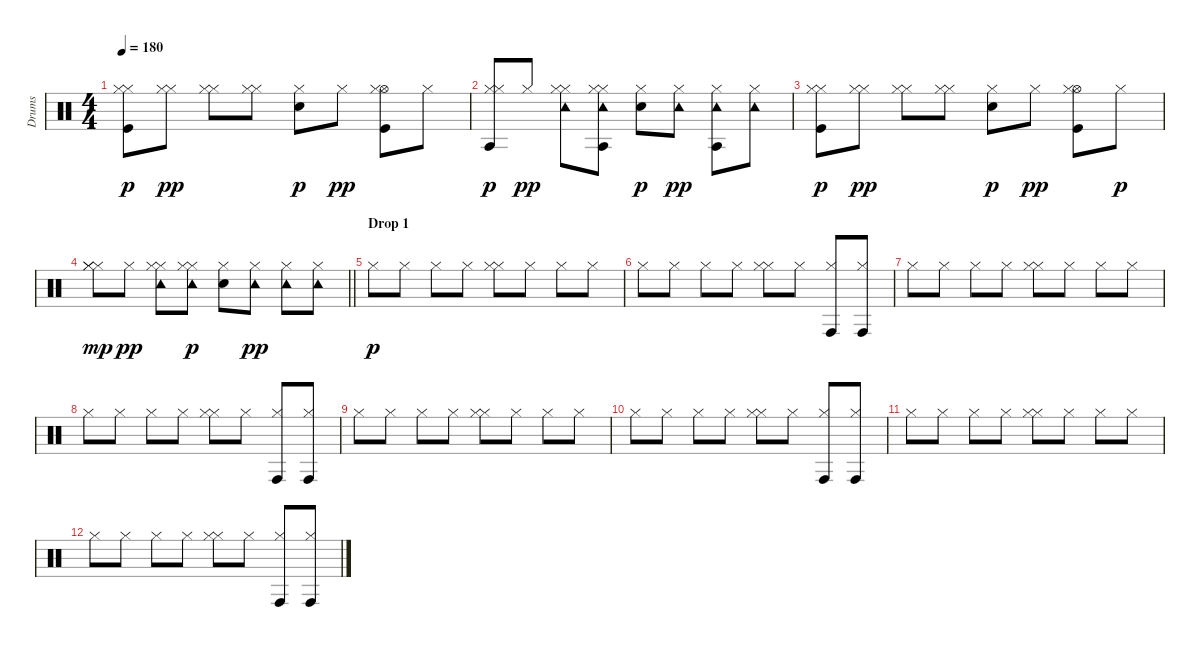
\track ("Drums" "Drums") {instrument percussion}
\staff {score}
\articulation defaults
\ts (4 4)
\tempo 180
\clef neutral
\ks c
("Hi-Hat (closed)" "Hi-Hat (closed)" "Kick (hit)").8{dy p} ("Hi-Hat (closed)" "Hi-Hat (closed)").8{dy pp} ("Hi-Hat (closed)" "Hi-Hat (closed)").8 ("Hi-Hat (closed)" "Hi-Hat (closed)").8 ("Electric Snare (hit)" "Hi-Hat (closed)").8{dy p} "Hi-Hat (closed)".8{dy pp} ("Hi-Hat (open)" "Hi-Hat (closed)" "Kick (hit)").8 "Hi-Hat (closed)".8 |
("Agogo tow (hit)" "Hi-Hat (closed)" "Hi-Hat (closed)").8{dy p} "Hi-Hat (closed)".8{dy pp} ("Tambourine (hit)" "Hi-Hat (closed)" "Hi-Hat (closed)").8 ("Tambourine (hit)" "Hi-Hat (closed)" "Hi-Hat (closed)" "Agogo tow (hit)").8 ("Electric Snare (hit)" "Hi-Hat (closed)").8{dy p} ("Tambourine (hit)" "Hi-Hat (closed)").8{dy pp} ("Tambourine (hit)" "Hi-Hat (closed)" "Agogo tow (hit)").8 ("Tambourine (hit)" "Hi-Hat (closed)").8 |
("Hi-Hat (closed)" "Hi-Hat (closed)" "Kick (hit)").8{dy p} ("Hi-Hat (closed)" "Hi-Hat (closed)").8{dy pp} ("Hi-Hat (closed)" "Hi-Hat (closed)").8 ("Hi-Hat (closed)" "Hi-Hat (closed)").8 ("Electric Snare (hit)" "Hi-Hat (closed)").8{dy p} "Hi-Hat (closed)".8{dy pp} ("Hi-Hat (open)" "Hi-Hat (closed)" "Kick (hit)").8 "Hi-Hat (closed)".8{dy p} |
\barLineRight lightlight
("Hi-Hat (closed)" "Hi-Hat (closed)" "Hi-Hat (closed)").8{dy mp} "Hi-Hat (closed)".8{dy pp} ("Tambourine (hit)" "Hi-Hat (closed)" "Hi-Hat (closed)").8 ("Tambourine (hit)" "Hi-Hat (closed)" "Hi-Hat (closed)").8{dy p} ("Electric Snare (hit)" "Hi-Hat (closed)").8 ("Tambourine (hit)" "Hi-Hat (closed)").8{dy pp} ("Tambourine (hit)" "Hi-Hat (closed)").8 ("Tambourine (hit)" "Hi-Hat (closed)").8 |
\section ("" "Drop 1")
"Hi-Hat (closed)".8{dy p} "Hi-Hat (closed)".8 "Hi-Hat (closed)".8 "Hi-Hat (closed)".8 ("Hi-Hat (closed)" "Hi-Hat (closed)").8 "Hi-Hat (closed)".8 "Hi-Hat (closed)".8 "Hi-Hat (closed)".8 |
"Hi-Hat (closed)".8 "Hi-Hat (closed)".8 "Hi-Hat (closed)".8 "Hi-Hat (closed)".8 ("Hi-Hat (closed)" "Hi-Hat (closed)").8 "Hi-Hat (closed)".8 ("Hi-Hat (closed)" "Conga high (hit)").8 ("Hi-Hat (closed)" "Conga high (hit)").8 |
"Hi-Hat (closed)".8 "Hi-Hat (closed)".8 "Hi-Hat (closed)".8 "Hi-Hat (closed)".8 ("Hi-Hat (closed)" "Hi-Hat (closed)").8 "Hi-Hat (closed)".8 "Hi-Hat (closed)".8 "Hi-Hat (closed)".8 |
"Hi-Hat (closed)".8 "Hi-Hat (closed)".8 "Hi-Hat (closed)".8 "Hi-Hat (closed)".8 ("Hi-Hat (closed)" "Hi-Hat (closed)").8 "Hi-Hat (closed)".8 ("Hi-Hat (closed)" "Conga high (hit)").8 ("Hi-Hat (closed)" "Conga high (hit)").8 |
"Hi-Hat (closed)".8 "Hi-Hat (closed)".8 "Hi-Hat (closed)".8 "Hi-Hat (closed)".8 ("Hi-Hat (closed)" "Hi-Hat (closed)").8 "Hi-Hat (closed)".8 "Hi-Hat (closed)".8 "Hi-Hat (closed)".8 |
"Hi-Hat (closed)".8 "Hi-Hat (closed)".8 "Hi-Hat (closed)".8 "Hi-Hat (closed)".8 ("Hi-Hat (closed)" "Hi-Hat (closed)").8 "Hi-Hat (closed)".8 ("Hi-Hat (closed)" "Conga high (hit)").8 ("Hi-Hat (closed)" "Conga high (hit)").8 |
"Hi-Hat (closed)".8 "Hi-Hat (closed)".8 "Hi-Hat (closed)".8 "Hi-Hat (closed)".8 ("Hi-Hat (closed)" "Hi-Hat (closed)").8 "Hi-Hat (closed)".8 "Hi-Hat (closed)".8 "Hi-Hat (closed)".8 |
"Hi-Hat (closed)".8 "Hi-Hat (closed)".8 "Hi-Hat (closed)".8 "Hi-Hat (closed)".8 ("Hi-Hat (closed)" "Hi-Hat (closed)").8 "Hi-Hat (closed)".8 ("Hi-Hat (closed)" "Conga high (hit)").8 ("Hi-Hat (closed)" "Conga high (hit)").8
